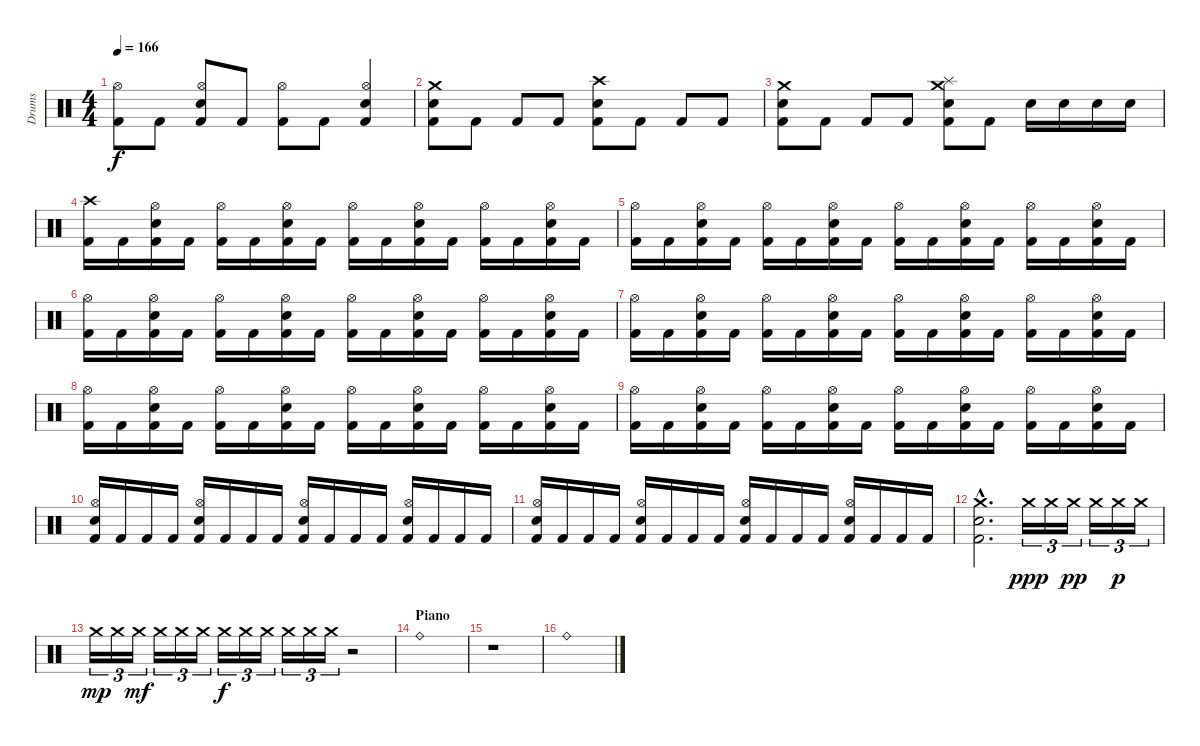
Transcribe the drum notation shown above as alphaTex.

\track ("Drums" "Drums") {instrument percussion}
\staff {score}
\articulation defaults
\ts (4 4)
\tempo 166
\clef neutral
\ks c
("Kick (hit) 2" "Hi-Hat (open)").8{dy f} "Kick (hit) 2".8 ("Kick (hit) 2" "Electric Snare (hit)" "Hi-Hat (open)").8 "Kick (hit) 2".8 ("Kick (hit) 2" "Hi-Hat (open)").8 "Kick (hit) 2".8 ("Kick (hit) 2" "Electric Snare (hit)" "Hi-Hat (open)").4 |
("Kick (hit) 2" "Electric Snare (hit)" "Crash medium (hit)").8 "Kick (hit) 2".8 "Kick (hit) 2".8 "Kick (hit) 2".8 ("Kick (hit) 2" "Electric Snare (hit)" "Crash high (hit)").8 "Kick (hit) 2".8 "Kick (hit) 2".8 "Kick (hit) 2".8 |
("Kick (hit) 2" "Electric Snare (hit)" "Crash medium (hit)").8 "Kick (hit) 2".8 "Kick (hit) 2".8 "Kick (hit) 2".8 ("Kick (hit) 2" "Electric Snare (hit)" "Crash medium (hit)" "Splash (hit)").8 "Kick (hit) 2".8 "Electric Snare (hit)".16 "Electric Snare (hit)".16 "Electric Snare (hit)".16 "Electric Snare (hit)".16 |
\section ("" "")
("Kick (hit) 2" "Crash high (hit)").16 "Kick (hit) 2".16 ("Kick (hit) 2" "Electric Snare (hit)" "Hi-Hat (open)").16 "Kick (hit) 2".16 ("Kick (hit) 2" "Hi-Hat (open)").16 "Kick (hit) 2".16 ("Kick (hit) 2" "Electric Snare (hit)" "Hi-Hat (open)").16 "Kick (hit) 2".16 ("Kick (hit) 2" "Hi-Hat (open)").16 "Kick (hit) 2".16 ("Kick (hit) 2" "Electric Snare (hit)" "Hi-Hat (open)").16 "Kick (hit) 2".16 ("Kick (hit) 2" "Hi-Hat (open)").16 "Kick (hit) 2".16 ("Kick (hit) 2" "Electric Snare (hit)" "Hi-Hat (open)").16 "Kick (hit) 2".16 |
("Kick (hit) 2" "Hi-Hat (open)").16 "Kick (hit) 2".16 ("Kick (hit) 2" "Electric Snare (hit)" "Hi-Hat (open)").16 "Kick (hit) 2".16 ("Kick (hit) 2" "Hi-Hat (open)").16 "Kick (hit) 2".16 ("Kick (hit) 2" "Electric Snare (hit)" "Hi-Hat (open)").16 "Kick (hit) 2".16 ("Kick (hit) 2" "Hi-Hat (open)").16 "Kick (hit) 2".16 ("Kick (hit) 2" "Electric Snare (hit)" "Hi-Hat (open)").16 "Kick (hit) 2".16 ("Kick (hit) 2" "Hi-Hat (open)").16 "Kick (hit) 2".16 ("Kick (hit) 2" "Electric Snare (hit)" "Hi-Hat (open)").16 "Kick (hit) 2".16 |
("Kick (hit) 2" "Hi-Hat (open)").16 "Kick (hit) 2".16 ("Kick (hit) 2" "Electric Snare (hit)" "Hi-Hat (open)").16 "Kick (hit) 2".16 ("Kick (hit) 2" "Hi-Hat (open)").16 "Kick (hit) 2".16 ("Kick (hit) 2" "Electric Snare (hit)" "Hi-Hat (open)").16 "Kick (hit) 2".16 ("Kick (hit) 2" "Hi-Hat (open)").16 "Kick (hit) 2".16 ("Kick (hit) 2" "Electric Snare (hit)" "Hi-Hat (open)").16 "Kick (hit) 2".16 ("Kick (hit) 2" "Hi-Hat (open)").16 "Kick (hit) 2".16 ("Kick (hit) 2" "Electric Snare (hit)" "Hi-Hat (open)").16 "Kick (hit) 2".16 |
("Kick (hit) 2" "Hi-Hat (open)").16 "Kick (hit) 2".16 ("Kick (hit) 2" "Electric Snare (hit)" "Hi-Hat (open)").16 "Kick (hit) 2".16 ("Kick (hit) 2" "Hi-Hat (open)").16 "Kick (hit) 2".16 ("Kick (hit) 2" "Electric Snare (hit)" "Hi-Hat (open)").16 "Kick (hit) 2".16 ("Kick (hit) 2" "Hi-Hat (open)").16 "Kick (hit) 2".16 ("Kick (hit) 2" "Electric Snare (hit)" "Hi-Hat (open)").16 "Kick (hit) 2".16 ("Kick (hit) 2" "Hi-Hat (open)").16 "Kick (hit) 2".16 ("Kick (hit) 2" "Electric Snare (hit)" "Hi-Hat (open)").16 "Kick (hit) 2".16 |
("Kick (hit) 2" "Hi-Hat (open)").16 "Kick (hit) 2".16 ("Kick (hit) 2" "Electric Snare (hit)" "Hi-Hat (open)").16 "Kick (hit) 2".16 ("Kick (hit) 2" "Hi-Hat (open)").16 "Kick (hit) 2".16 ("Kick (hit) 2" "Electric Snare (hit)" "Hi-Hat (open)").16 "Kick (hit) 2".16 ("Kick (hit) 2" "Hi-Hat (open)").16 "Kick (hit) 2".16 ("Kick (hit) 2" "Electric Snare (hit)" "Hi-Hat (open)").16 "Kick (hit) 2".16 ("Kick (hit) 2" "Hi-Hat (open)").16 "Kick (hit) 2".16 ("Kick (hit) 2" "Electric Snare (hit)" "Hi-Hat (open)").16 "Kick (hit) 2".16 |
("Kick (hit) 2" "Hi-Hat (open)").16 "Kick (hit) 2".16 ("Kick (hit) 2" "Electric Snare (hit)" "Hi-Hat (open)").16 "Kick (hit) 2".16 ("Kick (hit) 2" "Hi-Hat (open)").16 "Kick (hit) 2".16 ("Kick (hit) 2" "Electric Snare (hit)" "Hi-Hat (open)").16 "Kick (hit) 2".16 ("Kick (hit) 2" "Hi-Hat (open)").16 "Kick (hit) 2".16 ("Kick (hit) 2" "Electric Snare (hit)" "Hi-Hat (open)").16 "Kick (hit) 2".16 ("Kick (hit) 2" "Hi-Hat (open)").16 "Kick (hit) 2".16 ("Kick (hit) 2" "Electric Snare (hit)" "Hi-Hat (open)").16 "Kick (hit) 2".16 |
\section ("" "")
("Kick (hit) 2" "Electric Snare (hit)" "Hi-Hat (open)").16 "Kick (hit) 2".16 "Kick (hit) 2".16 "Kick (hit) 2".16 ("Kick (hit) 2" "Electric Snare (hit)" "Hi-Hat (open)").16 "Kick (hit) 2".16 "Kick (hit) 2".16 "Kick (hit) 2".16 ("Kick (hit) 2" "Electric Snare (hit)" "Hi-Hat (open)").16 "Kick (hit) 2".16 "Kick (hit) 2".16 "Kick (hit) 2".16 ("Kick (hit) 2" "Electric Snare (hit)" "Hi-Hat (open)").16 "Kick (hit) 2".16 "Kick (hit) 2".16 "Kick (hit) 2".16 |
("Kick (hit) 2" "Electric Snare (hit)" "Hi-Hat (open)").16 "Kick (hit) 2".16 "Kick (hit) 2".16 "Kick (hit) 2".16 ("Kick (hit) 2" "Electric Snare (hit)" "Hi-Hat (open)").16 "Kick (hit) 2".16 "Kick (hit) 2".16 "Kick (hit) 2".16 ("Kick (hit) 2" "Electric Snare (hit)" "Hi-Hat (open)").16 "Kick (hit) 2".16 "Kick (hit) 2".16 "Kick (hit) 2".16 ("Kick (hit) 2" "Electric Snare (hit)" "Hi-Hat (open)").16 "Kick (hit) 2".16 "Kick (hit) 2".16 "Kick (hit) 2".16 |
("Kick (hit) 2"{hac} "Electric Snare (hit)"{hac} "Crash medium (hit)"{hac}).2{d} "Crash medium (hit)".16{tu (3 2) dy ppp} "Crash medium (hit)".16{tu (3 2)} "Crash medium (hit)".16{tu (3 2) dy pp} "Crash medium (hit)".16{tu (3 2)} "Crash medium (hit)".16{tu (3 2) dy p} "Crash medium (hit)".16{tu (3 2)} |
"Crash medium (hit)".16{tu (3 2) dy mp} "Crash medium (hit)".16{tu (3 2)} "Crash medium (hit)".16{tu (3 2) dy mf} "Crash medium (hit)".16{tu (3 2)} "Crash medium (hit)".16{tu (3 2)} "Crash medium (hit)".16{tu (3 2)} "Crash medium (hit)".16{tu (3 2) dy f} "Crash medium (hit)".16{tu (3 2)} "Crash medium (hit)".16{tu (3 2)} "Crash medium (hit)".16{tu (3 2)} "Crash medium (hit)".16{tu (3 2)} "Crash medium (hit)".16{tu (3 2)} r.2 |
\section ("" "Piano")
"Ride (bell)".1 |
r.1 |
"Ride (bell)".1
